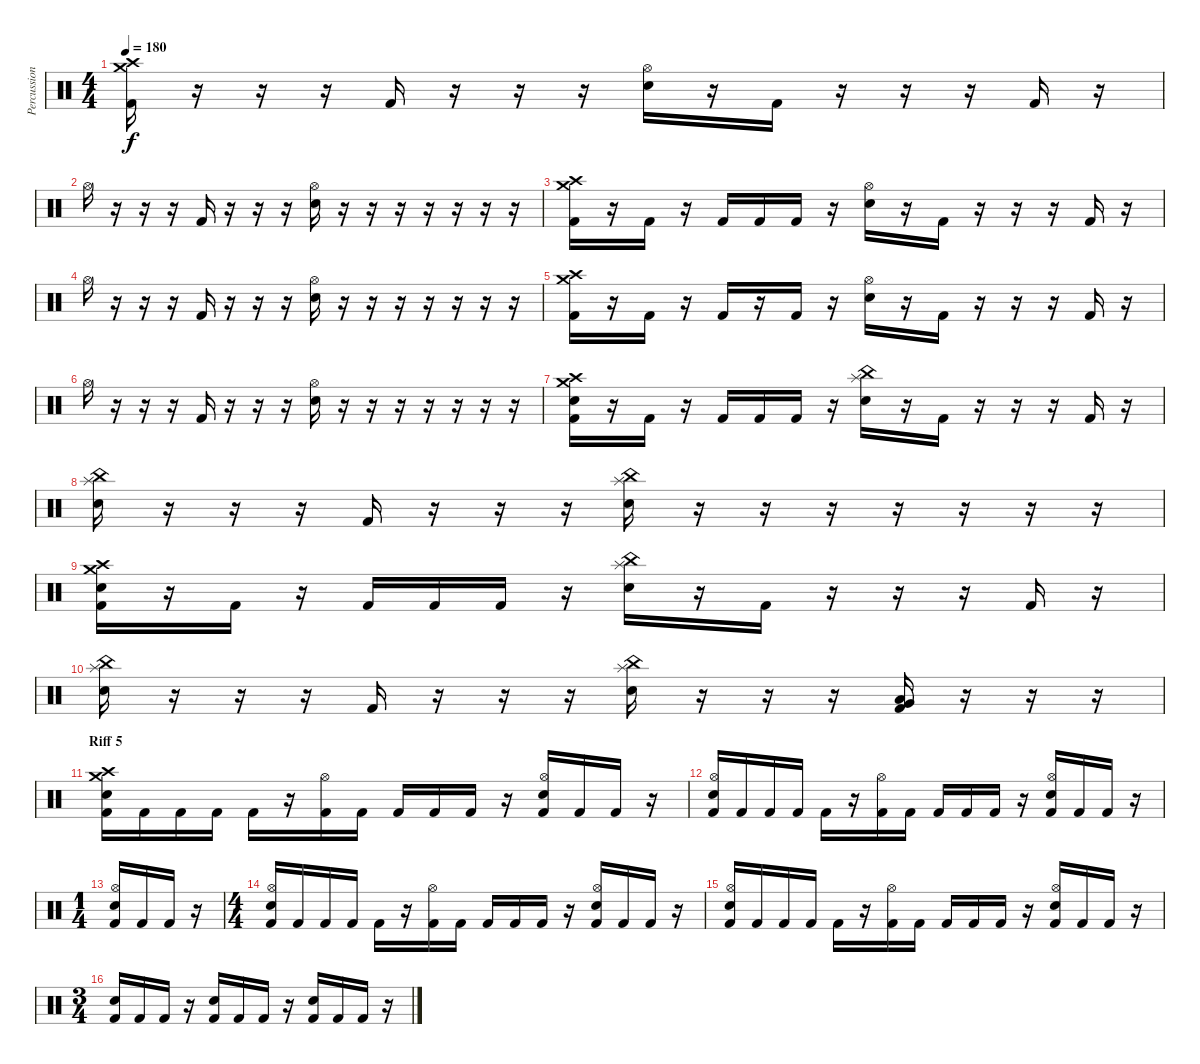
\track ("Percussion" "Percussion") {instrument percussion}
\staff {score}
\articulation defaults
\ts (4 4)
\tempo 180
\clef neutral
\ks c
("Crash medium (hit)" "Crash high (hit)" "Kick (hit) 2").16{dy f} r.16 r.16 r.16 "Kick (hit) 2".16 r.16 r.16 r.16 ("Hi-Hat (open)" "Electric Snare (hit)").16 r.16 "Kick (hit) 2".16 r.16 r.16 r.16 "Kick (hit) 2".16 r.16 |
"Hi-Hat (open)".16 r.16 r.16 r.16 "Kick (hit) 2".16 r.16 r.16 r.16 ("Hi-Hat (open)" "Electric Snare (hit)").16 r.16 r.16 r.16 r.16 r.16 r.16 r.16 |
("Crash medium (hit)" "Crash high (hit)" "Kick (hit) 2").16 r.16 "Kick (hit) 2".16 r.16 "Kick (hit) 2".16 "Kick (hit) 2".16 "Kick (hit) 2".16 r.16 ("Hi-Hat (open)" "Electric Snare (hit)").16 r.16 "Kick (hit) 2".16 r.16 r.16 r.16 "Kick (hit) 2".16 r.16 |
"Hi-Hat (open)".16 r.16 r.16 r.16 "Kick (hit) 2".16 r.16 r.16 r.16 ("Hi-Hat (open)" "Electric Snare (hit)").16 r.16 r.16 r.16 r.16 r.16 r.16 r.16 |
("Crash medium (hit)" "Crash high (hit)" "Kick (hit) 2").16 r.16 "Kick (hit) 2".16 r.16 "Kick (hit) 2".16 r.16 "Kick (hit) 2".16 r.16 ("Hi-Hat (open)" "Electric Snare (hit)").16 r.16 "Kick (hit) 2".16 r.16 r.16 r.16 "Kick (hit) 2".16 r.16 |
"Hi-Hat (open)".16 r.16 r.16 r.16 "Kick (hit) 2".16 r.16 r.16 r.16 ("Hi-Hat (open)" "Electric Snare (hit)").16 r.16 r.16 r.16 r.16 r.16 r.16 r.16 |
("Crash medium (hit)" "Crash high (hit)" "Electric Snare (hit)" "Kick (hit) 2").16 r.16 "Kick (hit) 2".16 r.16 "Kick (hit) 2".16 "Kick (hit) 2".16 "Kick (hit) 2".16 r.16 ("China (hit)" "Splash (hit)" "Electric Snare (hit)").16 r.16 "Kick (hit) 2".16 r.16 r.16 r.16 "Kick (hit) 2".16 r.16 |
("China (hit)" "Splash (hit)" "Electric Snare (hit)").16 r.16 r.16 r.16 "Kick (hit) 2".16 r.16 r.16 r.16 ("China (hit)" "Splash (hit)" "Electric Snare (hit)").16 r.16 r.16 r.16 r.16 r.16 r.16 r.16 |
("Crash medium (hit)" "Crash high (hit)" "Electric Snare (hit)" "Kick (hit) 2").16 r.16 "Kick (hit) 2".16 r.16 "Kick (hit) 2".16 "Kick (hit) 2".16 "Kick (hit) 2".16 r.16 ("China (hit)" "Splash (hit)" "Electric Snare (hit)").16 r.16 "Kick (hit) 2".16 r.16 r.16 r.16 "Kick (hit) 2".16 r.16 |
("China (hit)" "Splash (hit)" "Electric Snare (hit)").16 r.16 r.16 r.16 "Kick (hit) 2".16 r.16 r.16 r.16 ("China (hit)" "Splash (hit)" "Electric Snare (hit)").16 r.16 r.16 r.16 ("Very Low Tom (hit)" "Low Floor Tom (hit)" "Kick (hit) 2").16 r.16 r.16 r.16 |
\section ("" "Riff 5")
("Crash medium (hit)" "Crash high (hit)" "Electric Snare (hit)" "Kick (hit) 2").16 "Kick (hit) 2".16 "Kick (hit) 2".16 "Kick (hit) 2".16 "Kick (hit) 2".16 r.16 ("Hi-Hat (open)" "Kick (hit) 2").16 "Kick (hit) 2".16 "Kick (hit) 2".16 "Kick (hit) 2".16 "Kick (hit) 2".16 r.16 ("Hi-Hat (open)" "Electric Snare (hit)" "Kick (hit) 2").16 "Kick (hit) 2".16 "Kick (hit) 2".16 r.16 |
("Hi-Hat (open)" "Electric Snare (hit)" "Kick (hit) 2").16 "Kick (hit) 2".16 "Kick (hit) 2".16 "Kick (hit) 2".16 "Kick (hit) 2".16 r.16 ("Hi-Hat (open)" "Kick (hit) 2").16 "Kick (hit) 2".16 "Kick (hit) 2".16 "Kick (hit) 2".16 "Kick (hit) 2".16 r.16 ("Hi-Hat (open)" "Electric Snare (hit)" "Kick (hit) 2").16 "Kick (hit) 2".16 "Kick (hit) 2".16 r.16 |
\ts (1 4)
("Hi-Hat (open)" "Electric Snare (hit)" "Kick (hit) 2").16 "Kick (hit) 2".16 "Kick (hit) 2".16 r.16 |
\ts (4 4)
("Hi-Hat (open)" "Electric Snare (hit)" "Kick (hit) 2").16 "Kick (hit) 2".16 "Kick (hit) 2".16 "Kick (hit) 2".16 "Kick (hit) 2".16 r.16 ("Hi-Hat (open)" "Kick (hit) 2").16 "Kick (hit) 2".16 "Kick (hit) 2".16 "Kick (hit) 2".16 "Kick (hit) 2".16 r.16 ("Hi-Hat (open)" "Electric Snare (hit)" "Kick (hit) 2").16 "Kick (hit) 2".16 "Kick (hit) 2".16 r.16 |
("Hi-Hat (open)" "Electric Snare (hit)" "Kick (hit) 2").16 "Kick (hit) 2".16 "Kick (hit) 2".16 "Kick (hit) 2".16 "Kick (hit) 2".16 r.16 ("Hi-Hat (open)" "Kick (hit) 2").16 "Kick (hit) 2".16 "Kick (hit) 2".16 "Kick (hit) 2".16 "Kick (hit) 2".16 r.16 ("Hi-Hat (open)" "Electric Snare (hit)" "Kick (hit) 2").16 "Kick (hit) 2".16 "Kick (hit) 2".16 r.16 |
\ts (3 4)
("Electric Snare (hit)" "Kick (hit) 2").16 "Kick (hit) 2".16 "Kick (hit) 2".16 r.16 ("Electric Snare (hit)" "Kick (hit) 2").16 "Kick (hit) 2".16 "Kick (hit) 2".16 r.16 ("Electric Snare (hit)" "Kick (hit) 2").16 "Kick (hit) 2".16 "Kick (hit) 2".16 r.16
